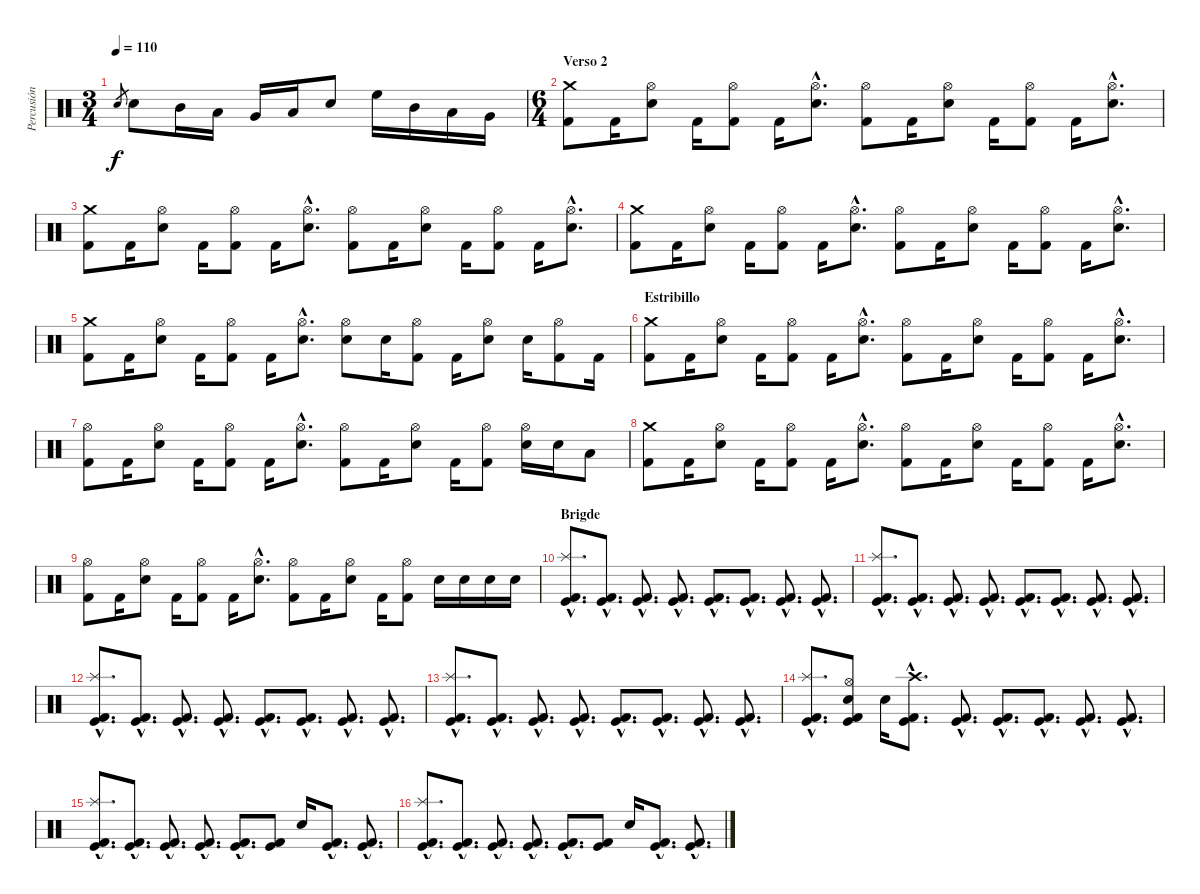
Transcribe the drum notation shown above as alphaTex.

\track ("Percusión" "Percusión") {instrument percussion}
\staff {score}
\articulation defaults
\ts (3 4)
\tempo 110
\clef neutral
\ks c "Snare (hit) 2".8{gr dy f} "Snare (hit) 2".8 "Mid Tom (hit)".16 "Low Tom (hit)".16 "Very Low Tom (hit)".16 "Low Floor Tom (hit)".16 "Snare (hit) 2".8 "High Floor Tom (hit)".16 "Mid Tom (hit)".16 "Low Tom (hit)".16 "Very Low Tom (hit)".16
|
\ts (6 4)
\section ("" "Verso 2 ")
("Crash medium (hit)" "Kick (hit) 2").8 "Kick (hit) 2".16 ("Hi-Hat (open)" "Snare (hit) 2").8 "Kick (hit) 2".16 ("Hi-Hat (open)" "Kick (hit) 2").8 "Kick (hit) 2".16 ("Hi-Hat (open)"{hac} "Snare (hit) 2"{hac}).8{d} ("Hi-Hat (open)" "Kick (hit) 2").8 "Kick (hit) 2".16 ("Hi-Hat (open)" "Snare (hit) 2").8 "Kick (hit) 2".16 ("Hi-Hat (open)" "Kick (hit) 2").8 "Kick (hit) 2".16 ("Hi-Hat (open)" "Snare (hit) 2"{hac}).8{d} |
("Crash medium (hit)" "Kick (hit) 2").8 "Kick (hit) 2".16 ("Hi-Hat (open)" "Snare (hit) 2").8 "Kick (hit) 2".16 ("Hi-Hat (open)" "Kick (hit) 2").8 "Kick (hit) 2".16 ("Hi-Hat (open)"{hac} "Snare (hit) 2"{hac}).8{d} ("Hi-Hat (open)" "Kick (hit) 2").8 "Kick (hit) 2".16 ("Hi-Hat (open)" "Snare (hit) 2").8 "Kick (hit) 2".16 ("Hi-Hat (open)" "Kick (hit) 2").8 "Kick (hit) 2".16 ("Hi-Hat (open)" "Snare (hit) 2"{hac}).8{d} |
("Crash medium (hit)" "Kick (hit) 2").8 "Kick (hit) 2".16 ("Hi-Hat (open)" "Snare (hit) 2").8 "Kick (hit) 2".16 ("Hi-Hat (open)" "Kick (hit) 2").8 "Kick (hit) 2".16 ("Hi-Hat (open)"{hac} "Snare (hit) 2"{hac}).8{d} ("Hi-Hat (open)" "Kick (hit) 2").8 "Kick (hit) 2".16 ("Hi-Hat (open)" "Snare (hit) 2").8 "Kick (hit) 2".16 ("Hi-Hat (open)" "Kick (hit) 2").8 "Kick (hit) 2".16 ("Hi-Hat (open)" "Snare (hit) 2"{hac}).8{d} |
("Crash medium (hit)" "Kick (hit) 2").8 "Kick (hit) 2".16 ("Hi-Hat (open)" "Snare (hit) 2").8 "Kick (hit) 2".16 ("Hi-Hat (open)" "Kick (hit) 2").8 "Kick (hit) 2".16 ("Hi-Hat (open)"{hac} "Snare (hit) 2"{hac}).8{d} ("Hi-Hat (open)" "Snare (hit) 2").8 "Snare (hit) 2".16 ("Hi-Hat (open)" "Kick (hit) 2").8 "Kick (hit) 2".16 ("Hi-Hat (open)" "Snare (hit) 2").8 "Snare (hit) 2".16 ("Hi-Hat (open)" "Kick (hit) 2").8 "Kick (hit) 2".16 |
\section ("" "Estribillo")
("Crash medium (hit)" "Kick (hit) 2").8 "Kick (hit) 2".16 ("Hi-Hat (open)" "Snare (hit) 2").8 "Kick (hit) 2".16 ("Hi-Hat (open)" "Kick (hit) 2").8 "Kick (hit) 2".16 ("Hi-Hat (open)"{hac} "Snare (hit) 2"{hac}).8{d} ("Hi-Hat (open)" "Kick (hit) 2").8 "Kick (hit) 2".16 ("Hi-Hat (open)" "Snare (hit) 2").8 "Kick (hit) 2".16 ("Hi-Hat (open)" "Kick (hit) 2").8 "Kick (hit) 2".16 ("Hi-Hat (open)" "Snare (hit) 2"{hac}).8{d} |
("Hi-Hat (open)" "Kick (hit) 2").8 "Kick (hit) 2".16 ("Hi-Hat (open)" "Snare (hit) 2").8 "Kick (hit) 2".16 ("Hi-Hat (open)" "Kick (hit) 2").8 "Kick (hit) 2".16 ("Hi-Hat (open)"{hac} "Snare (hit) 2"{hac}).8{d} ("Hi-Hat (open)" "Kick (hit) 2").8 "Kick (hit) 2".16 ("Hi-Hat (open)" "Snare (hit) 2").8 "Kick (hit) 2".16 ("Hi-Hat (open)" "Kick (hit) 2").8 ("Hi-Hat (open)" "Snare (hit) 2").16 "Snare (hit) 2".16 "Low Tom (hit)".8 |
("Crash medium (hit)" "Kick (hit) 2").8 "Kick (hit) 2".16 ("Hi-Hat (open)" "Snare (hit) 2").8 "Kick (hit) 2".16 ("Hi-Hat (open)" "Kick (hit) 2").8 "Kick (hit) 2".16 ("Hi-Hat (open)"{hac} "Snare (hit) 2"{hac}).8{d} ("Hi-Hat (open)" "Kick (hit) 2").8 "Kick (hit) 2".16 ("Hi-Hat (open)" "Snare (hit) 2").8 "Kick (hit) 2".16 ("Hi-Hat (open)" "Kick (hit) 2").8 "Kick (hit) 2".16 ("Hi-Hat (open)" "Snare (hit) 2"{hac}).8{d} |
("Hi-Hat (open)" "Kick (hit) 2").8 "Kick (hit) 2".16 ("Hi-Hat (open)" "Snare (hit) 2").8 "Kick (hit) 2".16 ("Hi-Hat (open)" "Kick (hit) 2").8 "Kick (hit) 2".16 ("Hi-Hat (open)"{hac} "Snare (hit) 2"{hac}).8{d} ("Hi-Hat (open)" "Kick (hit) 2").8 "Kick (hit) 2".16 ("Hi-Hat (open)" "Snare (hit) 2").8 "Kick (hit) 2".16 ("Hi-Hat (open)" "Kick (hit) 2").8 "Snare (hit) 2".16 "Snare (hit) 2".16 "Snare (hit) 2".16 "Snare (hit) 2".16 |
\section ("" "Brigde")
("Splash (hit)"{hac} "Kick (hit)"{hac} "Kick (hit) 2"{hac}).8{d} ("Kick (hit)"{hac} "Kick (hit) 2"{hac}).8{d} ("Kick (hit)"{hac} "Kick (hit) 2"{hac}).8{d} ("Kick (hit)"{hac} "Kick (hit) 2"{hac}).8{d} ("Kick (hit)"{hac} "Kick (hit) 2"{hac}).8{d} ("Kick (hit)"{hac} "Kick (hit) 2"{hac}).8{d} ("Kick (hit)"{hac} "Kick (hit) 2"{hac}).8{d} ("Kick (hit)"{hac} "Kick (hit) 2"{hac}).8{d} |
("Splash (hit)"{hac} "Kick (hit)"{hac} "Kick (hit) 2"{hac}).8{d} ("Kick (hit)"{hac} "Kick (hit) 2"{hac}).8{d} ("Kick (hit)"{hac} "Kick (hit) 2"{hac}).8{d} ("Kick (hit)"{hac} "Kick (hit) 2"{hac}).8{d} ("Kick (hit)"{hac} "Kick (hit) 2"{hac}).8{d} ("Kick (hit)"{hac} "Kick (hit) 2"{hac}).8{d} ("Kick (hit)"{hac} "Kick (hit) 2"{hac}).8{d} ("Kick (hit)"{hac} "Kick (hit) 2"{hac}).8{d} |
("Splash (hit)"{hac} "Kick (hit)"{hac} "Kick (hit) 2"{hac}).8{d} ("Kick (hit)"{hac} "Kick (hit) 2"{hac}).8{d} ("Kick (hit)"{hac} "Kick (hit) 2"{hac}).8{d} ("Kick (hit)"{hac} "Kick (hit) 2"{hac}).8{d} ("Kick (hit)"{hac} "Kick (hit) 2"{hac}).8{d} ("Kick (hit)"{hac} "Kick (hit) 2"{hac}).8{d} ("Kick (hit)"{hac} "Kick (hit) 2"{hac}).8{d} ("Kick (hit)"{hac} "Kick (hit) 2"{hac}).8{d} |
("Splash (hit)"{hac} "Kick (hit)"{hac} "Kick (hit) 2"{hac}).8{d} ("Kick (hit)"{hac} "Kick (hit) 2"{hac}).8{d} ("Kick (hit)"{hac} "Kick (hit) 2"{hac}).8{d} ("Kick (hit)"{hac} "Kick (hit) 2"{hac}).8{d} ("Kick (hit)"{hac} "Kick (hit) 2"{hac}).8{d} ("Kick (hit)"{hac} "Kick (hit) 2"{hac}).8{d} ("Kick (hit)"{hac} "Kick (hit) 2"{hac}).8{d} ("Kick (hit)"{hac} "Kick (hit) 2"{hac}).8{d} |
("Splash (hit)"{hac} "Kick (hit)"{hac} "Kick (hit) 2"{hac}).8{d} ("Snare (hit) 2" "Hi-Hat (open)" "Kick (hit)" "Kick (hit) 2").8 "Snare (hit) 2".16 ("Crash high (hit)"{hac} "Kick (hit)"{hac} "Kick (hit) 2"{hac}).8{d} ("Kick (hit)"{hac} "Kick (hit) 2"{hac}).8{d} ("Kick (hit)"{hac} "Kick (hit) 2"{hac}).8{d} ("Kick (hit)"{hac} "Kick (hit) 2"{hac}).8{d} ("Kick (hit)"{hac} "Kick (hit) 2"{hac}).8{d} ("Kick (hit)"{hac} "Kick (hit) 2"{hac}).8{d} |
("Splash (hit)"{hac} "Kick (hit)"{hac} "Kick (hit) 2"{hac}).8{d} ("Kick (hit)"{hac} "Kick (hit) 2"{hac}).8{d} ("Kick (hit)"{hac} "Kick (hit) 2"{hac}).8{d} ("Kick (hit)"{hac} "Kick (hit) 2"{hac}).8{d} ("Kick (hit)"{hac} "Kick (hit) 2"{hac}).8{d} ("Kick (hit)" "Kick (hit) 2").8 "Snare (hit) 2".16 ("Kick (hit)"{hac} "Kick (hit) 2"{hac}).8{d} ("Kick (hit)"{hac} "Kick (hit) 2"{hac}).8{d} |
("Splash (hit)"{hac} "Kick (hit)"{hac} "Kick (hit) 2"{hac}).8{d} ("Kick (hit)"{hac} "Kick (hit) 2"{hac}).8{d} ("Kick (hit)"{hac} "Kick (hit) 2"{hac}).8{d} ("Kick (hit)"{hac} "Kick (hit) 2"{hac}).8{d} ("Kick (hit)"{hac} "Kick (hit) 2"{hac}).8{d} ("Kick (hit)" "Kick (hit) 2").8 "Snare (hit) 2".16 ("Kick (hit)"{hac} "Kick (hit) 2"{hac}).8{d} ("Kick (hit)"{hac} "Kick (hit) 2"{hac}).8{d}
